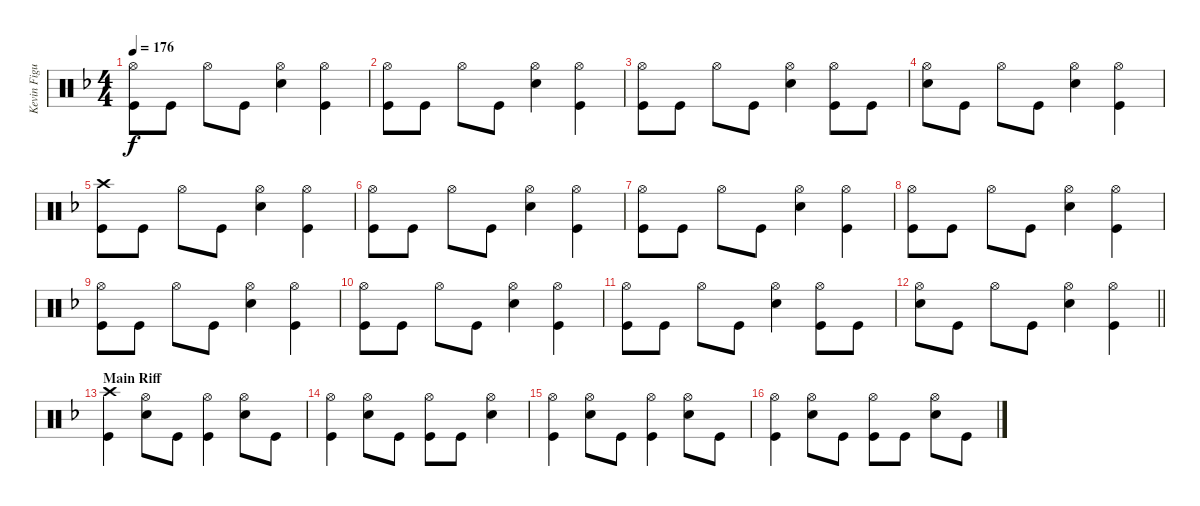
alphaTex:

\track ("Kevin Figueiredo - Drums" "Kevin Figu") {instrument percussion}
\staff {score}
\articulation defaults
\ts (4 4)
\tempo 176
\clef neutral
\ks f
("Hi-Hat (open)" "Kick (hit)").8{dy f} "Kick (hit)".8 "Hi-Hat (open)".8 "Kick (hit)".8 ("Hi-Hat (open)" "Snare (hit) 2").4 ("Hi-Hat (open)" "Kick (hit)").4 |
("Hi-Hat (open)" "Kick (hit)").8 "Kick (hit)".8 "Hi-Hat (open)".8 "Kick (hit)".8 ("Hi-Hat (open)" "Snare (hit) 2").4 ("Hi-Hat (open)" "Kick (hit)").4 |
("Hi-Hat (open)" "Kick (hit)").8 "Kick (hit)".8 "Hi-Hat (open)".8 "Kick (hit)".8 ("Hi-Hat (open)" "Snare (hit) 2").4 ("Hi-Hat (open)" "Kick (hit)").8 "Kick (hit)".8 |
("Hi-Hat (open)" "Snare (hit) 2").8 "Kick (hit)".8 "Hi-Hat (open)".8 "Kick (hit)".8 ("Hi-Hat (open)" "Snare (hit) 2").4 ("Hi-Hat (open)" "Kick (hit)").4 |
("Crash high (hit)" "Kick (hit)").8 "Kick (hit)".8 "Hi-Hat (open)".8 "Kick (hit)".8 ("Hi-Hat (open)" "Snare (hit) 2").4 ("Hi-Hat (open)" "Kick (hit)").4 |
("Hi-Hat (open)" "Kick (hit)").8 "Kick (hit)".8 "Hi-Hat (open)".8 "Kick (hit)".8 ("Hi-Hat (open)" "Snare (hit) 2").4 ("Hi-Hat (open)" "Kick (hit)").4 |
("Hi-Hat (open)" "Kick (hit)").8 "Kick (hit)".8 "Hi-Hat (open)".8 "Kick (hit)".8 ("Hi-Hat (open)" "Snare (hit) 2").4 ("Hi-Hat (open)" "Kick (hit)").4 |
("Hi-Hat (open)" "Kick (hit)").8 "Kick (hit)".8 "Hi-Hat (open)".8 "Kick (hit)".8 ("Hi-Hat (open)" "Snare (hit) 2").4 ("Hi-Hat (open)" "Kick (hit)").4 |
("Hi-Hat (open)" "Kick (hit)").8 "Kick (hit)".8 "Hi-Hat (open)".8 "Kick (hit)".8 ("Hi-Hat (open)" "Snare (hit) 2").4 ("Hi-Hat (open)" "Kick (hit)").4 |
("Hi-Hat (open)" "Kick (hit)").8 "Kick (hit)".8 "Hi-Hat (open)".8 "Kick (hit)".8 ("Hi-Hat (open)" "Snare (hit) 2").4 ("Hi-Hat (open)" "Kick (hit)").4 |
("Hi-Hat (open)" "Kick (hit)").8 "Kick (hit)".8 "Hi-Hat (open)".8 "Kick (hit)".8 ("Hi-Hat (open)" "Snare (hit) 2").4 ("Hi-Hat (open)" "Kick (hit)").8 "Kick (hit)".8 |
\barLineRight lightlight
("Hi-Hat (open)" "Snare (hit) 2").8 "Kick (hit)".8 "Hi-Hat (open)".8 "Kick (hit)".8 ("Hi-Hat (open)" "Snare (hit) 2").4 ("Hi-Hat (open)" "Kick (hit)").4 |
\section ("" "Main Riff")
("Crash high (hit)" "Kick (hit)").4 ("Hi-Hat (open)" "Snare (hit) 2").8 "Kick (hit)".8 ("Hi-Hat (open)" "Kick (hit)").4 ("Hi-Hat (open)" "Snare (hit) 2").8 "Kick (hit)".8 |
("Hi-Hat (open)" "Kick (hit)").4 ("Hi-Hat (open)" "Snare (hit) 2").8 "Kick (hit)".8 ("Hi-Hat (open)" "Kick (hit)").8 "Kick (hit)".8 ("Hi-Hat (open)" "Snare (hit) 2").4 |
("Hi-Hat (open)" "Kick (hit)").4 ("Hi-Hat (open)" "Snare (hit) 2").8 "Kick (hit)".8 ("Hi-Hat (open)" "Kick (hit)").4 ("Hi-Hat (open)" "Snare (hit) 2").8 "Kick (hit)".8 |
("Hi-Hat (open)" "Kick (hit)").4 ("Hi-Hat (open)" "Snare (hit) 2").8 "Kick (hit)".8 ("Hi-Hat (open)" "Kick (hit)").8 "Kick (hit)".8 ("Hi-Hat (open)" "Snare (hit) 2").8 "Kick (hit)".8
